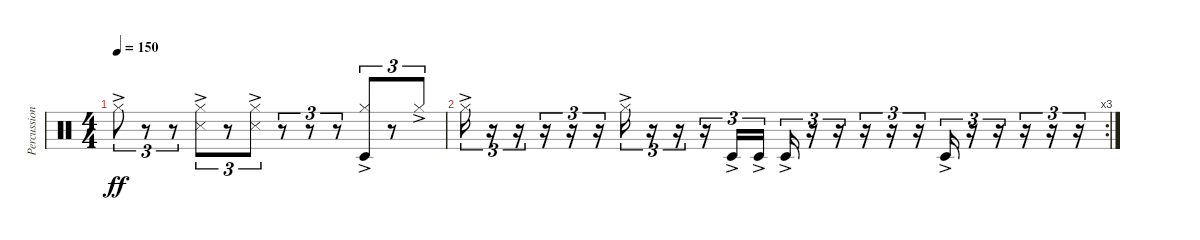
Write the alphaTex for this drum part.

\track ("Percussion" "Percussion") {instrument percussion}
\staff {score}
\articulation defaults
\ts (4 4)
\tempo 150
\clef neutral
\ks c "Hi-Hat (closed)"{ac}.8{tu (3 2) dy ff}
r.8{tu (3 2)} r.8{tu (3 2)} ("Hi-Hat (closed)"{ac} "Snare (side stick) 3"{ac}).8{tu (3 2)} r.8{tu (3 2)} ("Hi-Hat (closed)"{ac} "Snare (side stick) 3"{ac}).8{tu (3 2)} r.8{tu (3 2)} r.8{tu (3 2)} r.8{tu (3 2)} ("Hi-Hat (closed)"{ac} "Timbale low (hit)"{ac}).8{tu (3 2)} r.8{tu (3 2)} "Hi-Hat (closed)"{ac}.8{tu (3 2)} |
\rc 3 "Hi-Hat (closed)"{ac}.16{tu (3 2)}
r.16{tu (3 2)} r.16{tu (3 2)} r.16{tu (3 2)} r.16{tu (3 2)} r.16{tu (3 2)} "Hi-Hat (closed)"{ac}.16{tu (3 2)} r.16{tu (3 2)} r.16{tu (3 2)} r.16{tu (3 2)} "Timbale low (hit)"{ac}.16{tu (3 2)} "Timbale low (hit)"{ac}.16{tu (3 2)} "Timbale low (hit)"{ac}.16{tu (3 2)} r.16{tu (3 2)} r.16{tu (3 2)} r.16{tu (3 2)} r.16{tu (3 2)} r.16{tu (3 2)} "Timbale low (hit)"{ac}.16{tu (3 2)} r.16{tu (3 2)} r.16{tu (3 2)} r.16{tu (3 2)} r.16{tu (3 2)} r.16{tu (3 2)}
